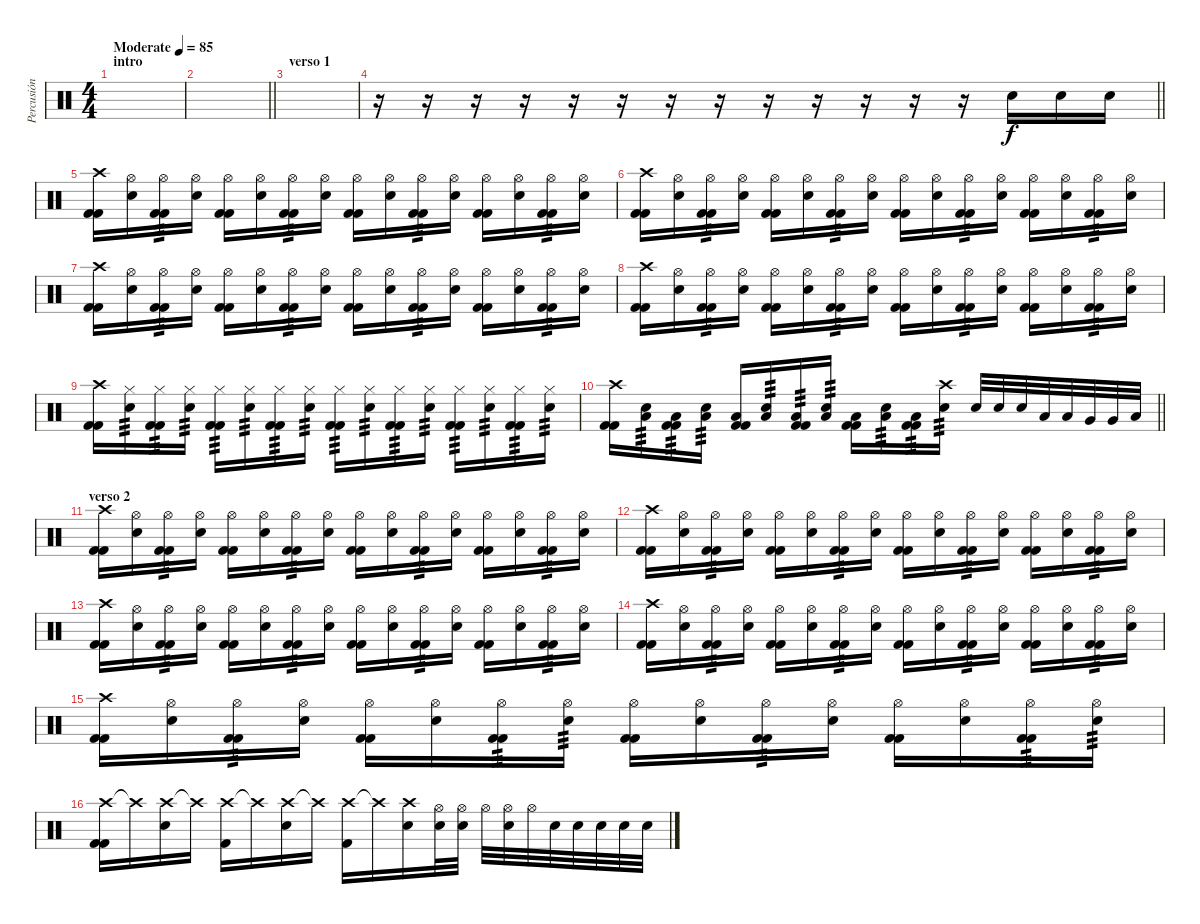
\track ("Percusión" "Percusión") {instrument percussion}
\staff {score}
\articulation defaults
\ts (4 4)
\section ("" "intro")
\tempo (85 "Moderate")
\clef neutral
\ks c
|
\barLineRight lightlight
|
\section ("" "verso 1")
|
\barLineRight lightlight
r.16 r.16 r.16 r.16 r.16 r.16 r.16 r.16 r.16 r.16 r.16 r.16 r.16 "Electric Snare (hit)".16 "Electric Snare (hit)".16 "Electric Snare (hit)".16 |
("Crash high (hit)" "Kick (hit) 2" "Kick (hit) 2").16{volume 14} ("Hi-Hat (open)" "Electric Snare (hit)").16 ("Hi-Hat (open)" "Kick (hit) 2" "Kick (hit) 2").16{tp 3} ("Hi-Hat (open)" "Electric Snare (hit)").16 ("Hi-Hat (open)" "Kick (hit) 2" "Kick (hit) 2").16 ("Hi-Hat (open)" "Electric Snare (hit)").16 ("Hi-Hat (open)" "Kick (hit) 2" "Kick (hit) 2").16{tp 3} ("Hi-Hat (open)" "Electric Snare (hit)").16 ("Hi-Hat (open)" "Kick (hit) 2" "Kick (hit) 2").16 ("Hi-Hat (open)" "Electric Snare (hit)").16 ("Hi-Hat (open)" "Kick (hit) 2" "Kick (hit) 2").16{tp 3} ("Hi-Hat (open)" "Electric Snare (hit)").16 ("Hi-Hat (open)" "Kick (hit) 2" "Kick (hit) 2").16 ("Hi-Hat (open)" "Electric Snare (hit)").16 ("Hi-Hat (open)" "Kick (hit) 2" "Kick (hit) 2").16{tp 3} ("Hi-Hat (open)" "Electric Snare (hit)").16 |
("Crash high (hit)" "Kick (hit) 2" "Kick (hit) 2").16 ("Hi-Hat (open)" "Electric Snare (hit)").16 ("Hi-Hat (open)" "Kick (hit) 2" "Kick (hit) 2").16{tp 3} ("Hi-Hat (open)" "Electric Snare (hit)").16 ("Hi-Hat (open)" "Kick (hit) 2" "Kick (hit) 2").16 ("Hi-Hat (open)" "Electric Snare (hit)").16 ("Hi-Hat (open)" "Kick (hit) 2" "Kick (hit) 2").16{tp 3} ("Hi-Hat (open)" "Electric Snare (hit)").16 ("Hi-Hat (open)" "Kick (hit) 2" "Kick (hit) 2").16 ("Hi-Hat (open)" "Electric Snare (hit)").16 ("Hi-Hat (open)" "Kick (hit) 2" "Kick (hit) 2").16{tp 3} ("Hi-Hat (open)" "Electric Snare (hit)").16 ("Hi-Hat (open)" "Kick (hit) 2" "Kick (hit) 2").16 ("Hi-Hat (open)" "Electric Snare (hit)").16 ("Hi-Hat (open)" "Kick (hit) 2" "Kick (hit) 2").16{tp 3} ("Hi-Hat (open)" "Electric Snare (hit)").16 |
("Crash high (hit)" "Kick (hit) 2" "Kick (hit) 2").16{volume 14} ("Hi-Hat (open)" "Electric Snare (hit)").16 ("Hi-Hat (open)" "Kick (hit) 2" "Kick (hit) 2").16{tp 3} ("Hi-Hat (open)" "Electric Snare (hit)").16 ("Hi-Hat (open)" "Kick (hit) 2" "Kick (hit) 2").16 ("Hi-Hat (open)" "Electric Snare (hit)").16 ("Hi-Hat (open)" "Kick (hit) 2" "Kick (hit) 2").16{tp 3} ("Hi-Hat (open)" "Electric Snare (hit)").16 ("Hi-Hat (open)" "Kick (hit) 2" "Kick (hit) 2").16 ("Hi-Hat (open)" "Electric Snare (hit)").16 ("Hi-Hat (open)" "Kick (hit) 2" "Kick (hit) 2").16{tp 3} ("Hi-Hat (open)" "Electric Snare (hit)").16 ("Hi-Hat (open)" "Kick (hit) 2" "Kick (hit) 2").16 ("Hi-Hat (open)" "Electric Snare (hit)").16 ("Hi-Hat (open)" "Kick (hit) 2" "Kick (hit) 2").16{tp 3} ("Hi-Hat (open)" "Electric Snare (hit)").16 |
("Crash high (hit)" "Kick (hit) 2" "Kick (hit) 2").16 ("Hi-Hat (open)" "Electric Snare (hit)").16 ("Hi-Hat (open)" "Kick (hit) 2" "Kick (hit) 2").16{tp 3} ("Hi-Hat (open)" "Electric Snare (hit)").16 ("Hi-Hat (open)" "Kick (hit) 2" "Kick (hit) 2").16 ("Hi-Hat (open)" "Electric Snare (hit)").16 ("Hi-Hat (open)" "Kick (hit) 2" "Kick (hit) 2").16{tp 3} ("Hi-Hat (open)" "Electric Snare (hit)").16 ("Hi-Hat (open)" "Kick (hit) 2" "Kick (hit) 2").16 ("Hi-Hat (open)" "Electric Snare (hit)").16 ("Hi-Hat (open)" "Kick (hit) 2" "Kick (hit) 2").16{tp 3} ("Hi-Hat (open)" "Electric Snare (hit)").16 ("Hi-Hat (open)" "Kick (hit) 2" "Kick (hit) 2").16 ("Hi-Hat (open)" "Electric Snare (hit)").16 ("Hi-Hat (open)" "Kick (hit) 2" "Kick (hit) 2").16{tp 3} ("Hi-Hat (open)" "Electric Snare (hit)").16 |
("Crash high (hit)" "Kick (hit) 2" "Kick (hit) 2").16{volume 14} ("Hi-Hat (closed)" "Electric Snare (hit)").16{tp 3} ("Hi-Hat (closed)" "Kick (hit) 2" "Kick (hit) 2").16{tp 3} ("Hi-Hat (closed)" "Electric Snare (hit)").16{tp 3} ("Hi-Hat (closed)" "Kick (hit) 2" "Kick (hit) 2").16{tp 3} ("Hi-Hat (closed)" "Electric Snare (hit)").16{tp 3} ("Hi-Hat (closed)" "Kick (hit) 2" "Kick (hit) 2").16{tp 3} ("Hi-Hat (closed)" "Electric Snare (hit)").16{tp 3} ("Hi-Hat (closed)" "Kick (hit) 2" "Kick (hit) 2").16{tp 3} ("Hi-Hat (closed)" "Electric Snare (hit)").16{tp 3} ("Hi-Hat (closed)" "Kick (hit) 2" "Kick (hit) 2").16{tp 3} ("Hi-Hat (closed)" "Electric Snare (hit)").16{tp 3} ("Hi-Hat (closed)" "Kick (hit) 2" "Kick (hit) 2").16{tp 3} ("Hi-Hat (closed)" "Electric Snare (hit)").16{tp 3} ("Hi-Hat (closed)" "Kick (hit) 2" "Kick (hit) 2").16{tp 3} ("Hi-Hat (closed)" "Electric Snare (hit)").16{tp 3} |
\barLineRight lightlight
("Crash high (hit)" "Kick (hit) 2" "Kick (hit) 2").16 ("Low Floor Tom (hit)" "Electric Snare (hit)").16{tp 3} ("Low Floor Tom (hit)" "Kick (hit) 2" "Kick (hit) 2").16{tp 3} ("Low Floor Tom (hit)" "Electric Snare (hit)").16{tp 3} ("Low Floor Tom (hit)" "Kick (hit) 2" "Kick (hit) 2").16 ("Low Floor Tom (hit)" "Electric Snare (hit)").16{tp 3} ("Low Floor Tom (hit)" "Kick (hit) 2" "Kick (hit) 2").16{tp 3} ("Low Floor Tom (hit)" "Electric Snare (hit)").16{tp 3} ("Low Floor Tom (hit)" "Kick (hit) 2" "Kick (hit) 2").16 ("Low Floor Tom (hit)" "Electric Snare (hit)").16{tp 3} ("Low Floor Tom (hit)" "Kick (hit) 2" "Kick (hit) 2").16{tp 3} ("Crash high (hit)" "Electric Snare (hit)").16{tp 3} "Electric Snare (hit)".32 "Electric Snare (hit)".32 "Electric Snare (hit)".32 "Low Tom (hit)".32 "Low Tom (hit)".32 "Very Low Tom (hit)".32 "Very Low Tom (hit)".32 "Low Floor Tom (hit)".32 |
\section ("" "verso 2")
("Crash high (hit)" "Kick (hit) 2" "Kick (hit) 2").16{volume 14} ("Hi-Hat (open)" "Electric Snare (hit)").16 ("Hi-Hat (open)" "Kick (hit) 2" "Kick (hit) 2").16{tp 3} ("Hi-Hat (open)" "Electric Snare (hit)").16 ("Hi-Hat (open)" "Kick (hit) 2" "Kick (hit) 2").16 ("Hi-Hat (open)" "Electric Snare (hit)").16 ("Hi-Hat (open)" "Kick (hit) 2" "Kick (hit) 2").16{tp 3} ("Hi-Hat (open)" "Electric Snare (hit)").16 ("Hi-Hat (open)" "Kick (hit) 2" "Kick (hit) 2").16 ("Hi-Hat (open)" "Electric Snare (hit)").16 ("Hi-Hat (open)" "Kick (hit) 2" "Kick (hit) 2").16{tp 3} ("Hi-Hat (open)" "Electric Snare (hit)").16 ("Hi-Hat (open)" "Kick (hit) 2" "Kick (hit) 2").16 ("Hi-Hat (open)" "Electric Snare (hit)").16 ("Hi-Hat (open)" "Kick (hit) 2" "Kick (hit) 2").16{tp 3} ("Hi-Hat (open)" "Electric Snare (hit)").16 |
("Crash high (hit)" "Kick (hit) 2" "Kick (hit) 2").16 ("Hi-Hat (open)" "Electric Snare (hit)").16 ("Hi-Hat (open)" "Kick (hit) 2" "Kick (hit) 2").16{tp 3} ("Hi-Hat (open)" "Electric Snare (hit)").16 ("Hi-Hat (open)" "Kick (hit) 2" "Kick (hit) 2").16 ("Hi-Hat (open)" "Electric Snare (hit)").16 ("Hi-Hat (open)" "Kick (hit) 2" "Kick (hit) 2").16{tp 3} ("Hi-Hat (open)" "Electric Snare (hit)").16 ("Hi-Hat (open)" "Kick (hit) 2" "Kick (hit) 2").16 ("Hi-Hat (open)" "Electric Snare (hit)").16 ("Hi-Hat (open)" "Kick (hit) 2" "Kick (hit) 2").16{tp 3} ("Hi-Hat (open)" "Electric Snare (hit)").16 ("Hi-Hat (open)" "Kick (hit) 2" "Kick (hit) 2").16 ("Hi-Hat (open)" "Electric Snare (hit)").16 ("Hi-Hat (open)" "Kick (hit) 2" "Kick (hit) 2").16{tp 3} ("Hi-Hat (open)" "Electric Snare (hit)").16 |
("Crash high (hit)" "Kick (hit) 2" "Kick (hit) 2").16{volume 14} ("Hi-Hat (open)" "Electric Snare (hit)").16 ("Hi-Hat (open)" "Kick (hit) 2" "Kick (hit) 2").16{tp 3} ("Hi-Hat (open)" "Electric Snare (hit)").16 ("Hi-Hat (open)" "Kick (hit) 2" "Kick (hit) 2").16 ("Hi-Hat (open)" "Electric Snare (hit)").16 ("Hi-Hat (open)" "Kick (hit) 2" "Kick (hit) 2").16{tp 3} ("Hi-Hat (open)" "Electric Snare (hit)").16 ("Hi-Hat (open)" "Kick (hit) 2" "Kick (hit) 2").16 ("Hi-Hat (open)" "Electric Snare (hit)").16 ("Hi-Hat (open)" "Kick (hit) 2" "Kick (hit) 2").16{tp 3} ("Hi-Hat (open)" "Electric Snare (hit)").16 ("Hi-Hat (open)" "Kick (hit) 2" "Kick (hit) 2").16 ("Hi-Hat (open)" "Electric Snare (hit)").16 ("Hi-Hat (open)" "Kick (hit) 2" "Kick (hit) 2").16{tp 3} ("Hi-Hat (open)" "Electric Snare (hit)").16 |
("Crash high (hit)" "Kick (hit) 2" "Kick (hit) 2").16 ("Hi-Hat (open)" "Electric Snare (hit)").16 ("Hi-Hat (open)" "Kick (hit) 2" "Kick (hit) 2").16{tp 3} ("Hi-Hat (open)" "Electric Snare (hit)").16 ("Hi-Hat (open)" "Kick (hit) 2" "Kick (hit) 2").16 ("Hi-Hat (open)" "Electric Snare (hit)").16 ("Hi-Hat (open)" "Kick (hit) 2" "Kick (hit) 2").16{tp 3} ("Hi-Hat (open)" "Electric Snare (hit)").16 ("Hi-Hat (open)" "Kick (hit) 2" "Kick (hit) 2").16 ("Hi-Hat (open)" "Electric Snare (hit)").16 ("Hi-Hat (open)" "Kick (hit) 2" "Kick (hit) 2").16{tp 3} ("Hi-Hat (open)" "Electric Snare (hit)").16 ("Hi-Hat (open)" "Kick (hit) 2" "Kick (hit) 2").16 ("Hi-Hat (open)" "Electric Snare (hit)").16 ("Hi-Hat (open)" "Kick (hit) 2" "Kick (hit) 2").16{tp 3} ("Hi-Hat (open)" "Electric Snare (hit)").16 |
("Crash high (hit)" "Kick (hit) 2" "Kick (hit) 2").16{volume 14} ("Hi-Hat (open)" "Electric Snare (hit)").16 ("Hi-Hat (open)" "Kick (hit) 2" "Kick (hit) 2").16{tp 3} ("Hi-Hat (open)" "Electric Snare (hit)").16 ("Hi-Hat (open)" "Kick (hit) 2" "Kick (hit) 2").16 ("Hi-Hat (open)" "Electric Snare (hit)").16 ("Hi-Hat (open)" "Kick (hit) 2" "Kick (hit) 2").16{tp 3} ("Hi-Hat (open)" "Electric Snare (hit)").16{tp 3} ("Hi-Hat (open)" "Kick (hit) 2" "Kick (hit) 2").16 ("Hi-Hat (open)" "Electric Snare (hit)").16 ("Hi-Hat (open)" "Kick (hit) 2" "Kick (hit) 2").16{tp 3} ("Hi-Hat (open)" "Electric Snare (hit)").16 ("Hi-Hat (open)" "Kick (hit) 2" "Kick (hit) 2").16 ("Hi-Hat (open)" "Electric Snare (hit)").16 ("Hi-Hat (open)" "Kick (hit) 2" "Kick (hit) 2").16{tp 3} ("Hi-Hat (open)" "Electric Snare (hit)").16{tp 3} |
("Crash high (hit)" "Kick (hit) 2" "Kick (hit) 2").16 "Crash high (hit)"{t}.16 ("Crash high (hit)" "Electric Snare (hit)").16 "Crash high (hit)"{t}.16 ("Crash high (hit)" "Kick (hit) 2").16 "Crash high (hit)"{t}.16 ("Crash high (hit)" "Electric Snare (hit)").16 "Crash high (hit)"{t}.16 ("Crash high (hit)" "Kick (hit) 2").16 "Crash high (hit)"{t}.16 ("Crash high (hit)" "Electric Snare (hit)").16 ("Hi-Hat (open)" "Electric Snare (hit)").32 ("Hi-Hat (open)" "Electric Snare (hit)").32 "Hi-Hat (open)".32 ("Hi-Hat (open)" "Electric Snare (hit)").32 "Hi-Hat (open)".32 "Electric Snare (hit)".32 "Electric Snare (hit)".32 "Electric Snare (hit)".32 "Electric Snare (hit)".32 "Electric Snare (hit)".32
